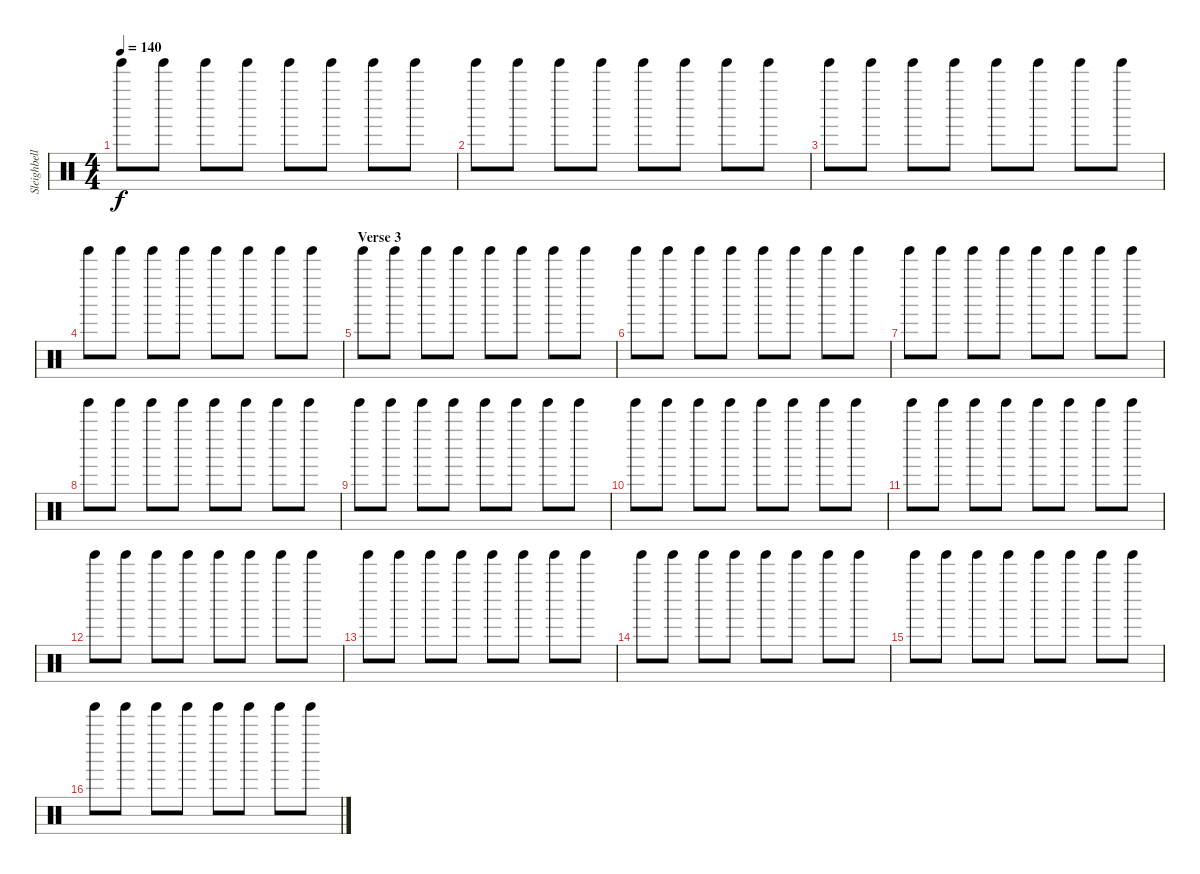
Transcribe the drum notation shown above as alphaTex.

\track ("Sleighbells" "Sleighbell") {instrument percussion}
\staff {score}
\articulation defaults
\ts (4 4)
\tempo 140
\clef neutral
\ks c "Tinkle Bell (hit)".8{dy f} "Tinkle Bell (hit)".8 "Tinkle Bell (hit)".8 "Tinkle Bell (hit)".8 "Tinkle Bell (hit)".8 "Tinkle Bell (hit)".8 "Tinkle Bell (hit)".8 "Tinkle Bell (hit)".8
|
"Tinkle Bell (hit)".8 "Tinkle Bell (hit)".8 "Tinkle Bell (hit)".8 "Tinkle Bell (hit)".8 "Tinkle Bell (hit)".8 "Tinkle Bell (hit)".8 "Tinkle Bell (hit)".8 "Tinkle Bell (hit)".8 |
"Tinkle Bell (hit)".8 "Tinkle Bell (hit)".8 "Tinkle Bell (hit)".8 "Tinkle Bell (hit)".8 "Tinkle Bell (hit)".8 "Tinkle Bell (hit)".8 "Tinkle Bell (hit)".8 "Tinkle Bell (hit)".8 |
"Tinkle Bell (hit)".8 "Tinkle Bell (hit)".8 "Tinkle Bell (hit)".8 "Tinkle Bell (hit)".8 "Tinkle Bell (hit)".8 "Tinkle Bell (hit)".8 "Tinkle Bell (hit)".8 "Tinkle Bell (hit)".8 |
\section ("" "Verse 3")
"Tinkle Bell (hit)".8 "Tinkle Bell (hit)".8 "Tinkle Bell (hit)".8 "Tinkle Bell (hit)".8 "Tinkle Bell (hit)".8 "Tinkle Bell (hit)".8 "Tinkle Bell (hit)".8 "Tinkle Bell (hit)".8 |
"Tinkle Bell (hit)".8 "Tinkle Bell (hit)".8 "Tinkle Bell (hit)".8 "Tinkle Bell (hit)".8 "Tinkle Bell (hit)".8 "Tinkle Bell (hit)".8 "Tinkle Bell (hit)".8 "Tinkle Bell (hit)".8 |
"Tinkle Bell (hit)".8 "Tinkle Bell (hit)".8 "Tinkle Bell (hit)".8 "Tinkle Bell (hit)".8 "Tinkle Bell (hit)".8 "Tinkle Bell (hit)".8 "Tinkle Bell (hit)".8 "Tinkle Bell (hit)".8 |
"Tinkle Bell (hit)".8 "Tinkle Bell (hit)".8 "Tinkle Bell (hit)".8 "Tinkle Bell (hit)".8 "Tinkle Bell (hit)".8 "Tinkle Bell (hit)".8 "Tinkle Bell (hit)".8 "Tinkle Bell (hit)".8 |
"Tinkle Bell (hit)".8 "Tinkle Bell (hit)".8 "Tinkle Bell (hit)".8 "Tinkle Bell (hit)".8 "Tinkle Bell (hit)".8 "Tinkle Bell (hit)".8 "Tinkle Bell (hit)".8 "Tinkle Bell (hit)".8 |
"Tinkle Bell (hit)".8 "Tinkle Bell (hit)".8 "Tinkle Bell (hit)".8 "Tinkle Bell (hit)".8 "Tinkle Bell (hit)".8 "Tinkle Bell (hit)".8 "Tinkle Bell (hit)".8 "Tinkle Bell (hit)".8 |
"Tinkle Bell (hit)".8 "Tinkle Bell (hit)".8 "Tinkle Bell (hit)".8 "Tinkle Bell (hit)".8 "Tinkle Bell (hit)".8 "Tinkle Bell (hit)".8 "Tinkle Bell (hit)".8 "Tinkle Bell (hit)".8 |
"Tinkle Bell (hit)".8 "Tinkle Bell (hit)".8 "Tinkle Bell (hit)".8 "Tinkle Bell (hit)".8 "Tinkle Bell (hit)".8 "Tinkle Bell (hit)".8 "Tinkle Bell (hit)".8 "Tinkle Bell (hit)".8 |
"Tinkle Bell (hit)".8 "Tinkle Bell (hit)".8 "Tinkle Bell (hit)".8 "Tinkle Bell (hit)".8 "Tinkle Bell (hit)".8 "Tinkle Bell (hit)".8 "Tinkle Bell (hit)".8 "Tinkle Bell (hit)".8 |
"Tinkle Bell (hit)".8 "Tinkle Bell (hit)".8 "Tinkle Bell (hit)".8 "Tinkle Bell (hit)".8 "Tinkle Bell (hit)".8 "Tinkle Bell (hit)".8 "Tinkle Bell (hit)".8 "Tinkle Bell (hit)".8 |
"Tinkle Bell (hit)".8 "Tinkle Bell (hit)".8 "Tinkle Bell (hit)".8 "Tinkle Bell (hit)".8 "Tinkle Bell (hit)".8 "Tinkle Bell (hit)".8 "Tinkle Bell (hit)".8 "Tinkle Bell (hit)".8 |
"Tinkle Bell (hit)".8 "Tinkle Bell (hit)".8 "Tinkle Bell (hit)".8 "Tinkle Bell (hit)".8 "Tinkle Bell (hit)".8 "Tinkle Bell (hit)".8 "Tinkle Bell (hit)".8 "Tinkle Bell (hit)".8
